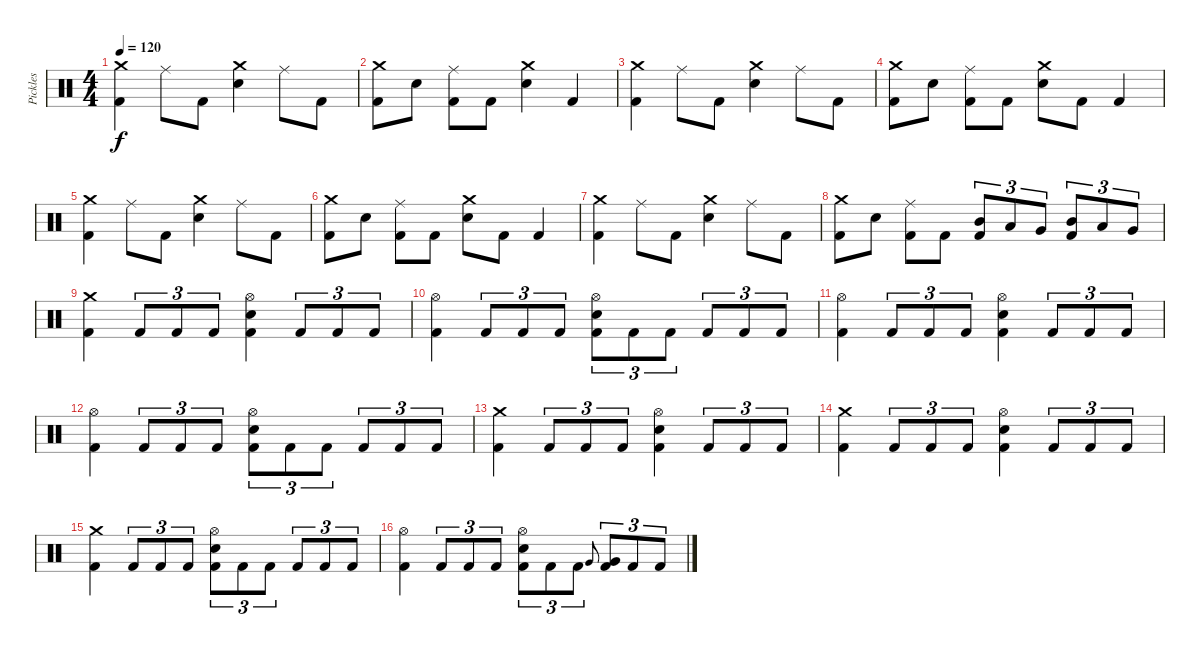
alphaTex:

\track ("Pickles" "Pickles") {instrument percussion}
\staff {score}
\articulation defaults
\ts (4 4)
\tempo 120
\clef neutral
\ks c
("Crash medium (hit)" "Kick (hit) 2").4{dy f} "Ride (middle)".8 "Kick (hit) 2".8 ("Crash medium (hit)" "Electric Snare (hit)").4 "Ride (middle)".8 "Kick (hit) 2".8 |
("Crash medium (hit)" "Kick (hit) 2").8 "Electric Snare (hit)".8 ("Ride (middle)" "Kick (hit) 2").8 "Kick (hit) 2".8 ("Crash medium (hit)" "Electric Snare (hit)").4 "Kick (hit) 2".4 |
("Crash medium (hit)" "Kick (hit) 2").4 "Ride (middle)".8 "Kick (hit) 2".8 ("Crash medium (hit)" "Electric Snare (hit)").4 "Ride (middle)".8 "Kick (hit) 2".8 |
("Crash medium (hit)" "Kick (hit) 2").8 "Electric Snare (hit)".8 ("Ride (middle)" "Kick (hit) 2").8 "Kick (hit) 2".8 ("Crash medium (hit)" "Electric Snare (hit)").8 "Kick (hit) 2".8 "Kick (hit) 2".4 |
("Crash medium (hit)" "Kick (hit) 2").4 "Ride (middle)".8 "Kick (hit) 2".8 ("Crash medium (hit)" "Electric Snare (hit)").4 "Ride (middle)".8 "Kick (hit) 2".8 |
("Crash medium (hit)" "Kick (hit) 2").8 "Electric Snare (hit)".8 ("Ride (middle)" "Kick (hit) 2").8 "Kick (hit) 2".8 ("Crash medium (hit)" "Electric Snare (hit)").8 "Kick (hit) 2".8 "Kick (hit) 2".4 |
("Crash medium (hit)" "Kick (hit) 2").4 "Ride (middle)".8 "Kick (hit) 2".8 ("Crash medium (hit)" "Electric Snare (hit)").4 "Ride (middle)".8 "Kick (hit) 2".8 |
("Crash medium (hit)" "Kick (hit) 2").8 "Electric Snare (hit)".8 ("Ride (middle)" "Kick (hit) 2").8 "Kick (hit) 2".8 ("Mid Tom (hit)" "Kick (hit) 2").8{tu (3 2)} "Low Tom (hit)".8{tu (3 2)} "Very Low Tom (hit)".8{tu (3 2)} ("Mid Tom (hit)" "Kick (hit) 2").8{tu (3 2)} "Low Tom (hit)".8{tu (3 2)} "Very Low Tom (hit)".8{tu (3 2)} |
("Crash medium (hit)" "Kick (hit) 2").4 "Kick (hit) 2".8{tu (3 2)} "Kick (hit) 2".8{tu (3 2)} "Kick (hit) 2".8{tu (3 2)} ("Hi-Hat (open)" "Electric Snare (hit)" "Kick (hit) 2").4 "Kick (hit) 2".8{tu (3 2)} "Kick (hit) 2".8{tu (3 2)} "Kick (hit) 2".8{tu (3 2)} |
("Hi-Hat (open)" "Kick (hit) 2").4 "Kick (hit) 2".8{tu (3 2)} "Kick (hit) 2".8{tu (3 2)} "Kick (hit) 2".8{tu (3 2)} ("Hi-Hat (open)" "Electric Snare (hit)" "Kick (hit) 2").8{tu (3 2)} "Kick (hit) 2".8{tu (3 2)} "Kick (hit) 2".8{tu (3 2)} "Kick (hit) 2".8{tu (3 2)} "Kick (hit) 2".8{tu (3 2)} "Kick (hit) 2".8{tu (3 2)} |
("Hi-Hat (open)" "Kick (hit) 2").4 "Kick (hit) 2".8{tu (3 2)} "Kick (hit) 2".8{tu (3 2)} "Kick (hit) 2".8{tu (3 2)} ("Hi-Hat (open)" "Electric Snare (hit)" "Kick (hit) 2").4 "Kick (hit) 2".8{tu (3 2)} "Kick (hit) 2".8{tu (3 2)} "Kick (hit) 2".8{tu (3 2)} |
("Hi-Hat (open)" "Kick (hit) 2").4 "Kick (hit) 2".8{tu (3 2)} "Kick (hit) 2".8{tu (3 2)} "Kick (hit) 2".8{tu (3 2)} ("Hi-Hat (open)" "Electric Snare (hit)" "Kick (hit) 2").8{tu (3 2)} "Kick (hit) 2".8{tu (3 2)} "Kick (hit) 2".8{tu (3 2)} "Kick (hit) 2".8{tu (3 2)} "Kick (hit) 2".8{tu (3 2)} "Kick (hit) 2".8{tu (3 2)} |
("Crash medium (hit)" "Kick (hit) 2").4 "Kick (hit) 2".8{tu (3 2)} "Kick (hit) 2".8{tu (3 2)} "Kick (hit) 2".8{tu (3 2)} ("Hi-Hat (open)" "Electric Snare (hit)" "Kick (hit) 2").4 "Kick (hit) 2".8{tu (3 2)} "Kick (hit) 2".8{tu (3 2)} "Kick (hit) 2".8{tu (3 2)} |
("Crash medium (hit)" "Kick (hit) 2").4 "Kick (hit) 2".8{tu (3 2)} "Kick (hit) 2".8{tu (3 2)} "Kick (hit) 2".8{tu (3 2)} ("Hi-Hat (open)" "Electric Snare (hit)" "Kick (hit) 2").4 "Kick (hit) 2".8{tu (3 2)} "Kick (hit) 2".8{tu (3 2)} "Kick (hit) 2".8{tu (3 2)} |
("Crash medium (hit)" "Kick (hit) 2").4 "Kick (hit) 2".8{tu (3 2)} "Kick (hit) 2".8{tu (3 2)} "Kick (hit) 2".8{tu (3 2)} ("Hi-Hat (open)" "Electric Snare (hit)" "Kick (hit) 2").8{tu (3 2)} "Kick (hit) 2".8{tu (3 2)} "Kick (hit) 2".8{tu (3 2)} "Kick (hit) 2".8{tu (3 2)} "Kick (hit) 2".8{tu (3 2)} "Kick (hit) 2".8{tu (3 2)} |
("Hi-Hat (open)" "Kick (hit) 2").4 "Kick (hit) 2".8{tu (3 2)} "Kick (hit) 2".8{tu (3 2)} "Kick (hit) 2".8{tu (3 2)} ("Hi-Hat (open)" "Electric Snare (hit)" "Kick (hit) 2").8{tu (3 2)} "Kick (hit) 2".8{tu (3 2)} "Kick (hit) 2".8{tu (3 2)} "Very Low Tom (hit)".8{gr onbeat} ("Very Low Tom (hit)" "Kick (hit) 2").8{tu (3 2)} "Kick (hit) 2".8{tu (3 2)} "Kick (hit) 2".8{tu (3 2)}
